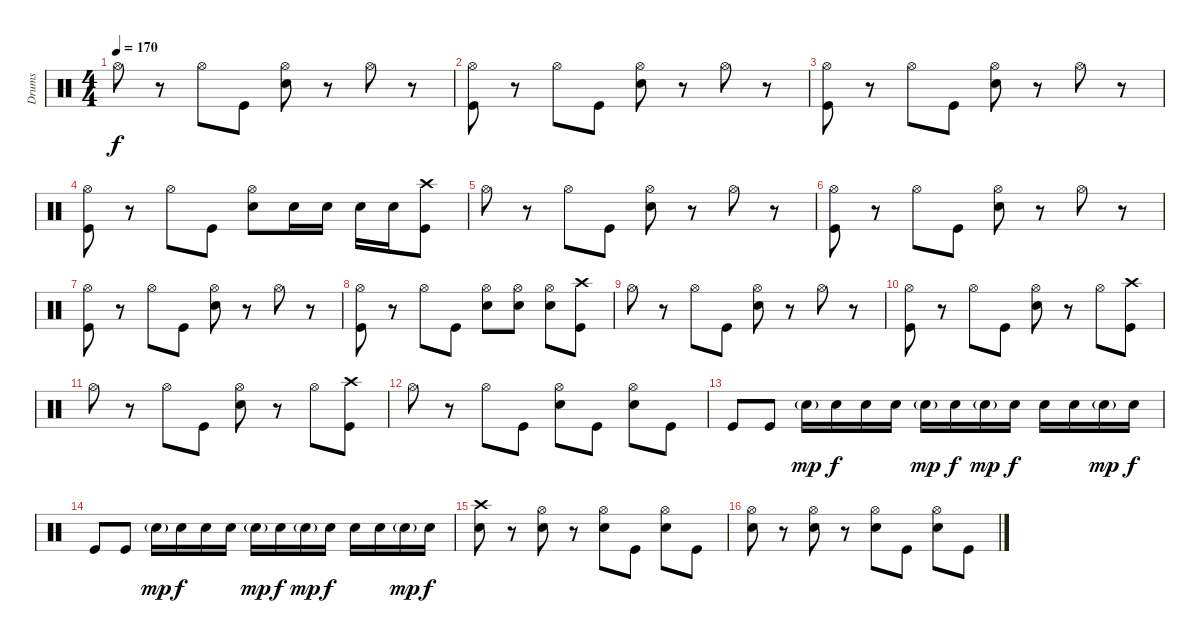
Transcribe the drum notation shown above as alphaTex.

\track ("Drums" "Drums") {instrument percussion}
\staff {score}
\articulation defaults
\ts (4 4)
\tempo 170
\clef neutral
\ks c "Hi-Hat (open)".8{dy f}
r.8 "Hi-Hat (open)".8 "Kick (hit)".8 ("Hi-Hat (open)" "Snare (hit) 2").8 r.8 "Hi-Hat (open)".8 r.8 |
("Hi-Hat (open)" "Kick (hit)").8 r.8 "Hi-Hat (open)".8 "Kick (hit)".8 ("Hi-Hat (open)" "Snare (hit) 2").8 r.8 "Hi-Hat (open)".8 r.8 |
("Hi-Hat (open)" "Kick (hit)").8 r.8 "Hi-Hat (open)".8 "Kick (hit)".8 ("Hi-Hat (open)" "Snare (hit) 2").8 r.8 "Hi-Hat (open)".8 r.8 |
("Hi-Hat (open)" "Kick (hit)").8 r.8 "Hi-Hat (open)".8 "Kick (hit)".8 ("Hi-Hat (open)" "Snare (hit) 2").8 "Snare (hit) 2".16 "Snare (hit) 2".16 "Snare (hit) 2".16 "Snare (hit) 2".16 ("Crash high (hit)" "Kick (hit)").8 |
"Hi-Hat (open)".8 r.8 "Hi-Hat (open)".8 "Kick (hit)".8 ("Hi-Hat (open)" "Snare (hit) 2").8 r.8 "Hi-Hat (open)".8 r.8 |
("Hi-Hat (open)" "Kick (hit)").8 r.8 "Hi-Hat (open)".8 "Kick (hit)".8 ("Hi-Hat (open)" "Snare (hit) 2").8 r.8 "Hi-Hat (open)".8 r.8 |
("Hi-Hat (open)" "Kick (hit)").8 r.8 "Hi-Hat (open)".8 "Kick (hit)".8 ("Hi-Hat (open)" "Snare (hit) 2").8 r.8 "Hi-Hat (open)".8 r.8 |
("Hi-Hat (open)" "Kick (hit)").8 r.8 "Hi-Hat (open)".8 "Kick (hit)".8 ("Hi-Hat (open)" "Snare (hit) 2").8 ("Hi-Hat (open)" "Snare (hit) 2").8 ("Hi-Hat (open)" "Snare (hit) 2").8 ("Crash high (hit)" "Kick (hit)").8 |
"Hi-Hat (open)".8 r.8 "Hi-Hat (open)".8 "Kick (hit)".8 ("Hi-Hat (open)" "Snare (hit) 2").8 r.8 "Hi-Hat (open)".8 r.8 |
("Hi-Hat (open)" "Kick (hit)").8 r.8 "Hi-Hat (open)".8 "Kick (hit)".8 ("Hi-Hat (open)" "Snare (hit) 2").8 r.8 "Hi-Hat (open)".8 ("Crash high (hit)" "Kick (hit)").8 |
"Hi-Hat (open)".8 r.8 "Hi-Hat (open)".8 "Kick (hit)".8 ("Hi-Hat (open)" "Snare (hit) 2").8 r.8 "Hi-Hat (open)".8 ("Crash high (hit)" "Kick (hit)").8 |
"Hi-Hat (open)".8 r.8 "Hi-Hat (open)".8 "Kick (hit)".8 ("Hi-Hat (open)" "Snare (hit) 2").8 "Kick (hit)".8 ("Hi-Hat (open)" "Snare (hit) 2").8 "Kick (hit)".8 |
"Kick (hit)".8 "Kick (hit)".8 "Snare (hit) 2"{g}.16{dy mp} "Snare (hit) 2".16{dy f} "Snare (hit) 2".16 "Snare (hit) 2".16 "Snare (hit) 2"{g}.16{dy mp} "Snare (hit) 2".16{dy f} "Snare (hit) 2"{g}.16{dy mp} "Snare (hit) 2".16{dy f} "Snare (hit) 2".16 "Snare (hit) 2".16 "Snare (hit) 2"{g}.16{dy mp} "Snare (hit) 2".16{dy f} |
"Kick (hit)".8 "Kick (hit)".8 "Snare (hit) 2"{g}.16{dy mp} "Snare (hit) 2".16{dy f} "Snare (hit) 2".16 "Snare (hit) 2".16 "Snare (hit) 2"{g}.16{dy mp} "Snare (hit) 2".16{dy f} "Snare (hit) 2"{g}.16{dy mp} "Snare (hit) 2".16{dy f} "Snare (hit) 2".16 "Snare (hit) 2".16 "Snare (hit) 2"{g}.16{dy mp} "Snare (hit) 2".16{dy f} |
("Crash high (hit)" "Snare (hit) 2").8 r.8 ("Hi-Hat (open)" "Snare (hit) 2").8 r.8 ("Hi-Hat (open)" "Snare (hit) 2").8 "Kick (hit)".8 ("Hi-Hat (open)" "Snare (hit) 2").8 "Kick (hit)".8 |
("Hi-Hat (open)" "Snare (hit) 2").8 r.8 ("Hi-Hat (open)" "Snare (hit) 2").8 r.8 ("Hi-Hat (open)" "Snare (hit) 2").8 "Kick (hit)".8 ("Hi-Hat (open)" "Snare (hit) 2").8 "Kick (hit)".8
